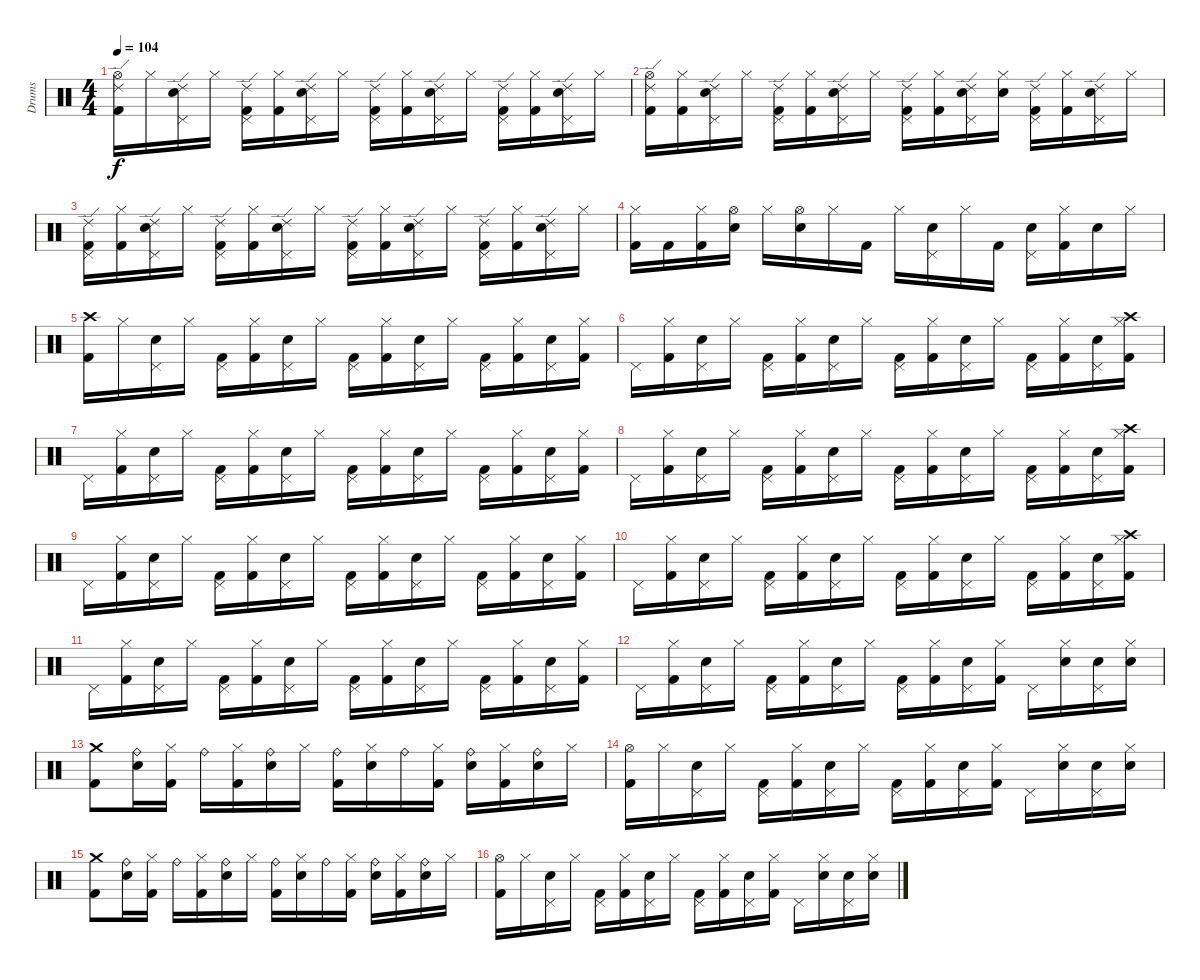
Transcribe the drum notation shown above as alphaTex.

\track ("Drums" "Drums") {instrument percussion}
\staff {score}
\articulation defaults
\ts (4 4)
\tempo 104
\clef neutral
\ks c
("Kick (hit) 2" "Hi-Hat (open)" "Ride (edge) 2").16{dy f} "Hi-Hat (closed)".16 ("Snare (hit) 2" "Pedal Hi-Hat (hit)" "Ride (edge) 2").16 "Hi-Hat (closed)".16 ("Kick (hit) 2" "Pedal Hi-Hat (hit)" "Ride (edge) 2").16 ("Kick (hit) 2" "Hi-Hat (closed)").16 ("Snare (hit) 2" "Pedal Hi-Hat (hit)" "Ride (edge) 2").16 "Hi-Hat (closed)".16 ("Kick (hit) 2" "Pedal Hi-Hat (hit)" "Ride (edge) 2").16 ("Kick (hit) 2" "Hi-Hat (closed)").16 ("Snare (hit) 2" "Pedal Hi-Hat (hit)" "Ride (edge) 2").16 "Hi-Hat (closed)".16 ("Kick (hit) 2" "Pedal Hi-Hat (hit)" "Ride (edge) 2").16 ("Kick (hit) 2" "Hi-Hat (closed)").16 ("Snare (hit) 2" "Pedal Hi-Hat (hit)" "Ride (edge) 2").16 "Hi-Hat (closed)".16 |
("Kick (hit) 2" "Hi-Hat (open)" "Ride (edge) 2").16 ("Kick (hit) 2" "Hi-Hat (closed)").16 ("Snare (hit) 2" "Pedal Hi-Hat (hit)" "Ride (edge) 2").16 "Hi-Hat (closed)".16 ("Kick (hit) 2" "Pedal Hi-Hat (hit)" "Ride (edge) 2").16 ("Kick (hit) 2" "Hi-Hat (closed)").16 ("Snare (hit) 2" "Pedal Hi-Hat (hit)" "Ride (edge) 2").16 "Hi-Hat (closed)".16 ("Kick (hit) 2" "Pedal Hi-Hat (hit)" "Ride (edge) 2").16 ("Kick (hit) 2" "Hi-Hat (closed)").16 ("Snare (hit) 2" "Pedal Hi-Hat (hit)" "Ride (edge) 2").16 ("Snare (hit) 2" "Hi-Hat (closed)").16 ("Kick (hit) 2" "Pedal Hi-Hat (hit)" "Ride (edge) 2").16 ("Kick (hit) 2" "Hi-Hat (closed)").16 ("Snare (hit) 2" "Pedal Hi-Hat (hit)" "Ride (edge) 2").16 "Hi-Hat (closed)".16 |
("Kick (hit) 2" "Pedal Hi-Hat (hit)" "Ride (edge) 2").16 ("Kick (hit) 2" "Hi-Hat (closed)").16 ("Snare (hit) 2" "Pedal Hi-Hat (hit)" "Ride (edge) 2").16 "Hi-Hat (closed)".16 ("Kick (hit) 2" "Pedal Hi-Hat (hit)" "Ride (edge) 2").16 ("Kick (hit) 2" "Hi-Hat (closed)").16 ("Snare (hit) 2" "Pedal Hi-Hat (hit)" "Ride (edge) 2").16 "Hi-Hat (closed)".16 ("Kick (hit) 2" "Pedal Hi-Hat (hit)" "Ride (edge) 2").16 ("Kick (hit) 2" "Hi-Hat (closed)").16 ("Snare (hit) 2" "Pedal Hi-Hat (hit)" "Ride (edge) 2").16 "Hi-Hat (closed)".16 ("Kick (hit) 2" "Pedal Hi-Hat (hit)" "Ride (edge) 2").16 ("Kick (hit) 2" "Hi-Hat (closed)").16 ("Snare (hit) 2" "Pedal Hi-Hat (hit)" "Ride (edge) 2").16 "Hi-Hat (closed)".16 |
("Kick (hit) 2" "Hi-Hat (closed)").16 "Kick (hit) 2".16 ("Kick (hit) 2" "Hi-Hat (closed)").16 ("Snare (hit) 2" "Hi-Hat (open)").16 "Hi-Hat (closed)".16 ("Snare (hit) 2" "Hi-Hat (open)").16 "Hi-Hat (closed)".16 "Kick (hit) 2".16 "Hi-Hat (closed)".16 ("Snare (hit) 2" "Pedal Hi-Hat (hit)").16 "Hi-Hat (closed)".16 "Kick (hit) 2".16 ("Snare (hit) 2" "Pedal Hi-Hat (hit)").16 ("Kick (hit) 2" "Hi-Hat (closed)").16 "Snare (hit) 2".16 "Hi-Hat (closed)".16 |
("Kick (hit) 2" "Crash high (hit)").16 "Hi-Hat (closed)".16 ("Snare (hit) 2" "Pedal Hi-Hat (hit)").16 "Hi-Hat (closed)".16 ("Kick (hit) 2" "Pedal Hi-Hat (hit)").16 ("Kick (hit) 2" "Hi-Hat (closed)").16 ("Snare (hit) 2" "Pedal Hi-Hat (hit)").16 "Hi-Hat (closed)".16 ("Kick (hit) 2" "Pedal Hi-Hat (hit)").16 ("Kick (hit) 2" "Hi-Hat (closed)").16 ("Snare (hit) 2" "Pedal Hi-Hat (hit)").16 "Hi-Hat (closed)".16 ("Kick (hit) 2" "Pedal Hi-Hat (hit)").16 ("Kick (hit) 2" "Hi-Hat (closed)").16 ("Snare (hit) 2" "Pedal Hi-Hat (hit)").16 ("Kick (hit) 2" "Hi-Hat (closed)").16 |
"Pedal Hi-Hat (hit)".16 ("Kick (hit) 2" "Hi-Hat (closed)").16 ("Snare (hit) 2" "Pedal Hi-Hat (hit)").16 "Hi-Hat (closed)".16 ("Kick (hit) 2" "Pedal Hi-Hat (hit)").16 ("Kick (hit) 2" "Hi-Hat (closed)").16 ("Snare (hit) 2" "Pedal Hi-Hat (hit)").16 "Hi-Hat (closed)".16 ("Kick (hit) 2" "Pedal Hi-Hat (hit)").16 ("Kick (hit) 2" "Hi-Hat (closed)").16 ("Snare (hit) 2" "Pedal Hi-Hat (hit)").16 "Hi-Hat (closed)".16 ("Kick (hit) 2" "Pedal Hi-Hat (hit)").16 ("Kick (hit) 2" "Hi-Hat (closed)").16 ("Snare (hit) 2" "Pedal Hi-Hat (hit)").16 ("Kick (hit) 2" "Hi-Hat (closed)" "Crash high (hit)").16 |
"Pedal Hi-Hat (hit)".16 ("Kick (hit) 2" "Hi-Hat (closed)").16 ("Snare (hit) 2" "Pedal Hi-Hat (hit)").16 "Hi-Hat (closed)".16 ("Kick (hit) 2" "Pedal Hi-Hat (hit)").16 ("Kick (hit) 2" "Hi-Hat (closed)").16 ("Snare (hit) 2" "Pedal Hi-Hat (hit)").16 "Hi-Hat (closed)".16 ("Kick (hit) 2" "Pedal Hi-Hat (hit)").16 ("Kick (hit) 2" "Hi-Hat (closed)").16 ("Snare (hit) 2" "Pedal Hi-Hat (hit)").16 "Hi-Hat (closed)".16 ("Kick (hit) 2" "Pedal Hi-Hat (hit)").16 ("Kick (hit) 2" "Hi-Hat (closed)").16 ("Snare (hit) 2" "Pedal Hi-Hat (hit)").16 ("Kick (hit) 2" "Hi-Hat (closed)").16 |
"Pedal Hi-Hat (hit)".16 ("Kick (hit) 2" "Hi-Hat (closed)").16 ("Snare (hit) 2" "Pedal Hi-Hat (hit)").16 "Hi-Hat (closed)".16 ("Kick (hit) 2" "Pedal Hi-Hat (hit)").16 ("Kick (hit) 2" "Hi-Hat (closed)").16 ("Snare (hit) 2" "Pedal Hi-Hat (hit)").16 "Hi-Hat (closed)".16 ("Kick (hit) 2" "Pedal Hi-Hat (hit)").16 ("Kick (hit) 2" "Hi-Hat (closed)").16 ("Snare (hit) 2" "Pedal Hi-Hat (hit)").16 "Hi-Hat (closed)".16 ("Kick (hit) 2" "Pedal Hi-Hat (hit)").16 ("Kick (hit) 2" "Hi-Hat (closed)").16 ("Snare (hit) 2" "Pedal Hi-Hat (hit)").16 ("Kick (hit) 2" "Hi-Hat (closed)" "Crash high (hit)").16 |
"Pedal Hi-Hat (hit)".16 ("Kick (hit) 2" "Hi-Hat (closed)").16 ("Snare (hit) 2" "Pedal Hi-Hat (hit)").16 "Hi-Hat (closed)".16 ("Kick (hit) 2" "Pedal Hi-Hat (hit)").16 ("Kick (hit) 2" "Hi-Hat (closed)").16 ("Snare (hit) 2" "Pedal Hi-Hat (hit)").16 "Hi-Hat (closed)".16 ("Kick (hit) 2" "Pedal Hi-Hat (hit)").16 ("Kick (hit) 2" "Hi-Hat (closed)").16 ("Snare (hit) 2" "Pedal Hi-Hat (hit)").16 "Hi-Hat (closed)".16 ("Kick (hit) 2" "Pedal Hi-Hat (hit)").16 ("Kick (hit) 2" "Hi-Hat (closed)").16 ("Snare (hit) 2" "Pedal Hi-Hat (hit)").16 ("Kick (hit) 2" "Hi-Hat (closed)").16 |
"Pedal Hi-Hat (hit)".16 ("Kick (hit) 2" "Hi-Hat (closed)").16 ("Snare (hit) 2" "Pedal Hi-Hat (hit)").16 "Hi-Hat (closed)".16 ("Kick (hit) 2" "Pedal Hi-Hat (hit)").16 ("Kick (hit) 2" "Hi-Hat (closed)").16 ("Snare (hit) 2" "Pedal Hi-Hat (hit)").16 "Hi-Hat (closed)".16 ("Kick (hit) 2" "Pedal Hi-Hat (hit)").16 ("Kick (hit) 2" "Hi-Hat (closed)").16 ("Snare (hit) 2" "Pedal Hi-Hat (hit)").16 "Hi-Hat (closed)".16 ("Kick (hit) 2" "Pedal Hi-Hat (hit)").16 ("Kick (hit) 2" "Hi-Hat (closed)").16 ("Snare (hit) 2" "Pedal Hi-Hat (hit)").16 ("Kick (hit) 2" "Hi-Hat (closed)" "Crash high (hit)").16 |
"Pedal Hi-Hat (hit)".16 ("Kick (hit) 2" "Hi-Hat (closed)").16 ("Snare (hit) 2" "Pedal Hi-Hat (hit)").16 "Hi-Hat (closed)".16 ("Kick (hit) 2" "Pedal Hi-Hat (hit)").16 ("Kick (hit) 2" "Hi-Hat (closed)").16 ("Snare (hit) 2" "Pedal Hi-Hat (hit)").16 "Hi-Hat (closed)".16 ("Kick (hit) 2" "Pedal Hi-Hat (hit)").16 ("Kick (hit) 2" "Hi-Hat (closed)").16 ("Snare (hit) 2" "Pedal Hi-Hat (hit)").16 "Hi-Hat (closed)".16 ("Kick (hit) 2" "Pedal Hi-Hat (hit)").16 ("Kick (hit) 2" "Hi-Hat (closed)").16 ("Snare (hit) 2" "Pedal Hi-Hat (hit)").16 ("Kick (hit) 2" "Hi-Hat (closed)").16 |
"Pedal Hi-Hat (hit)".16 ("Kick (hit) 2" "Hi-Hat (closed)").16 ("Snare (hit) 2" "Pedal Hi-Hat (hit)").16 "Hi-Hat (closed)".16 ("Kick (hit) 2" "Pedal Hi-Hat (hit)").16 ("Kick (hit) 2" "Hi-Hat (closed)").16 ("Snare (hit) 2" "Pedal Hi-Hat (hit)").16 "Hi-Hat (closed)".16 ("Kick (hit) 2" "Pedal Hi-Hat (hit)").16 ("Kick (hit) 2" "Hi-Hat (closed)").16 ("Snare (hit) 2" "Pedal Hi-Hat (hit)").16 ("Kick (hit) 2" "Hi-Hat (closed)").16 "Pedal Hi-Hat (hit)".16 ("Snare (hit) 2" "Hi-Hat (closed)").16 ("Snare (hit) 2" "Pedal Hi-Hat (hit)").16 ("Snare (hit) 2" "Hi-Hat (closed)").16 |
("Kick (hit) 2" "Crash medium (hit)").8 ("Snare (hit) 2" "Ride (bell)").16 ("Kick (hit) 2" "Hi-Hat (closed)").16 "Ride (bell)".16 ("Kick (hit) 2" "Hi-Hat (closed)").16 ("Snare (hit) 2" "Ride (bell)").16 "Hi-Hat (closed)".16 ("Kick (hit) 2" "Ride (bell)").16 ("Snare (hit) 2" "Hi-Hat (closed)").16 "Ride (bell)".16 ("Kick (hit) 2" "Hi-Hat (closed)").16 ("Snare (hit) 2" "Ride (bell)").16 ("Kick (hit) 2" "Hi-Hat (closed)").16 ("Snare (hit) 2" "Ride (bell)").16 "Hi-Hat (closed)".16 |
("Kick (hit) 2" "Hi-Hat (open)").16 "Hi-Hat (closed)".16 ("Snare (hit) 2" "Pedal Hi-Hat (hit)").16 "Hi-Hat (closed)".16 ("Kick (hit) 2" "Pedal Hi-Hat (hit)").16 ("Kick (hit) 2" "Hi-Hat (closed)").16 ("Snare (hit) 2" "Pedal Hi-Hat (hit)").16 "Hi-Hat (closed)".16 ("Kick (hit) 2" "Pedal Hi-Hat (hit)").16 ("Kick (hit) 2" "Hi-Hat (closed)").16 ("Snare (hit) 2" "Pedal Hi-Hat (hit)").16 ("Kick (hit) 2" "Hi-Hat (closed)").16 "Pedal Hi-Hat (hit)".16 ("Snare (hit) 2" "Hi-Hat (closed)").16 ("Snare (hit) 2" "Pedal Hi-Hat (hit)").16 ("Snare (hit) 2" "Hi-Hat (closed)").16 |
("Kick (hit) 2" "Crash medium (hit)").8 ("Snare (hit) 2" "Ride (bell)").16 ("Kick (hit) 2" "Hi-Hat (closed)").16 "Ride (bell)".16 ("Kick (hit) 2" "Hi-Hat (closed)").16 ("Snare (hit) 2" "Ride (bell)").16 "Hi-Hat (closed)".16 ("Kick (hit) 2" "Ride (bell)").16 ("Snare (hit) 2" "Hi-Hat (closed)").16 "Ride (bell)".16 ("Kick (hit) 2" "Hi-Hat (closed)").16 ("Snare (hit) 2" "Ride (bell)").16 ("Kick (hit) 2" "Hi-Hat (closed)").16 ("Snare (hit) 2" "Ride (bell)").16 "Hi-Hat (closed)".16 |
("Kick (hit) 2" "Hi-Hat (open)").16 "Hi-Hat (closed)".16 ("Snare (hit) 2" "Pedal Hi-Hat (hit)").16 "Hi-Hat (closed)".16 ("Kick (hit) 2" "Pedal Hi-Hat (hit)").16 ("Kick (hit) 2" "Hi-Hat (closed)").16 ("Snare (hit) 2" "Pedal Hi-Hat (hit)").16 "Hi-Hat (closed)".16 ("Kick (hit) 2" "Pedal Hi-Hat (hit)").16 ("Kick (hit) 2" "Hi-Hat (closed)").16 ("Snare (hit) 2" "Pedal Hi-Hat (hit)").16 ("Kick (hit) 2" "Hi-Hat (closed)").16 "Pedal Hi-Hat (hit)".16 ("Snare (hit) 2" "Hi-Hat (closed)").16 ("Snare (hit) 2" "Pedal Hi-Hat (hit)").16 ("Snare (hit) 2" "Hi-Hat (closed)").16
